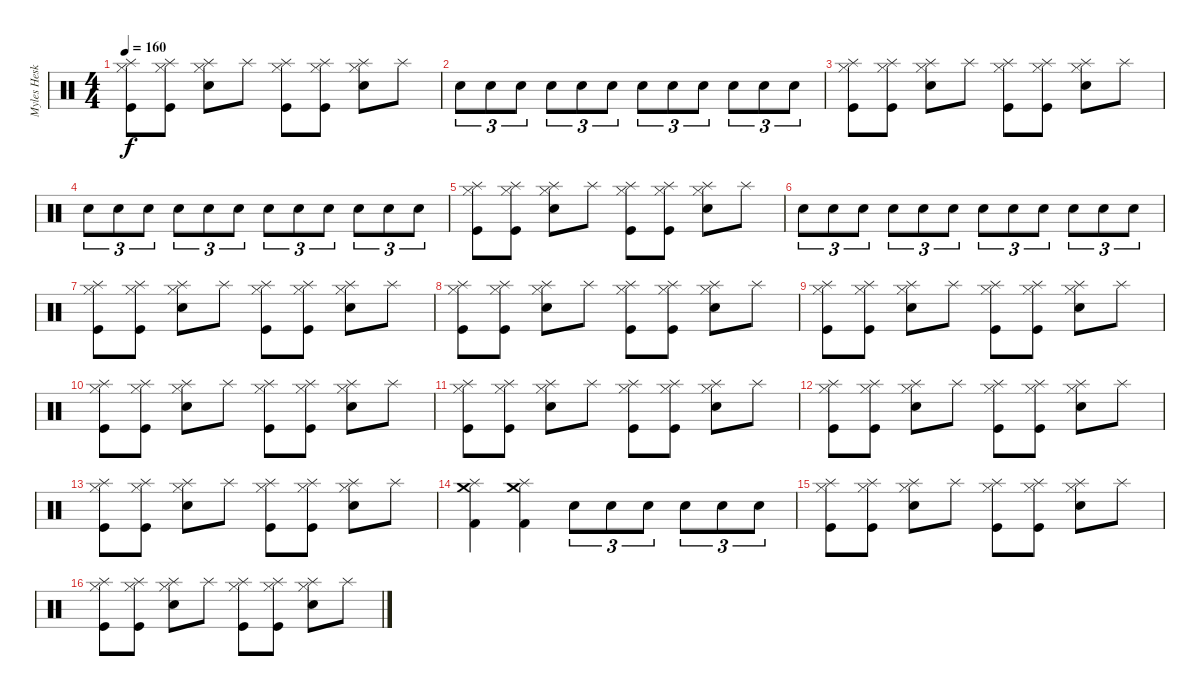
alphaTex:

\track ("Myles Heskett" "Myles Hesk") {instrument percussion}
\staff {score}
\articulation defaults
\ts (4 4)
\tempo 160
\clef neutral
\ks c
("Splash (hit)" "Hi-Hat (closed)" "Kick (hit)").8{dy f} ("Splash (hit)" "Hi-Hat (closed)" "Kick (hit)").8 ("Splash (hit)" "Hi-Hat (closed)" "Electric Snare (hit)").8 "Splash (hit)".8 ("Splash (hit)" "Hi-Hat (closed)" "Kick (hit)").8 ("Splash (hit)" "Hi-Hat (closed)" "Kick (hit)").8 ("Splash (hit)" "Hi-Hat (closed)" "Electric Snare (hit)").8 "Splash (hit)".8 |
"Snare (hit) 2".8{tu (3 2)} "Snare (hit) 2".8{tu (3 2)} "Snare (hit) 2".8{tu (3 2)} "Electric Snare (hit)".8{tu (3 2)} "Electric Snare (hit)".8{tu (3 2)} "Electric Snare (hit)".8{tu (3 2)} "Snare (hit) 2".8{tu (3 2)} "Snare (hit) 2".8{tu (3 2)} "Snare (hit) 2".8{tu (3 2)} "Electric Snare (hit)".8{tu (3 2)} "Electric Snare (hit)".8{tu (3 2)} "Electric Snare (hit)".8{tu (3 2)} |
("Splash (hit)" "Hi-Hat (closed)" "Kick (hit)").8 ("Splash (hit)" "Hi-Hat (closed)" "Kick (hit)").8 ("Splash (hit)" "Hi-Hat (closed)" "Electric Snare (hit)").8 "Splash (hit)".8 ("Splash (hit)" "Hi-Hat (closed)" "Kick (hit)").8 ("Splash (hit)" "Hi-Hat (closed)" "Kick (hit)").8 ("Splash (hit)" "Hi-Hat (closed)" "Electric Snare (hit)").8 "Splash (hit)".8 |
"Snare (hit) 2".8{tu (3 2)} "Snare (hit) 2".8{tu (3 2)} "Snare (hit) 2".8{tu (3 2)} "Electric Snare (hit)".8{tu (3 2)} "Electric Snare (hit)".8{tu (3 2)} "Electric Snare (hit)".8{tu (3 2)} "Snare (hit) 2".8{tu (3 2)} "Snare (hit) 2".8{tu (3 2)} "Snare (hit) 2".8{tu (3 2)} "Electric Snare (hit)".8{tu (3 2)} "Electric Snare (hit)".8{tu (3 2)} "Electric Snare (hit)".8{tu (3 2)} |
("Splash (hit)" "Hi-Hat (closed)" "Kick (hit)").8 ("Splash (hit)" "Hi-Hat (closed)" "Kick (hit)").8 ("Splash (hit)" "Hi-Hat (closed)" "Electric Snare (hit)").8 "Splash (hit)".8 ("Splash (hit)" "Hi-Hat (closed)" "Kick (hit)").8 ("Splash (hit)" "Hi-Hat (closed)" "Kick (hit)").8 ("Splash (hit)" "Hi-Hat (closed)" "Electric Snare (hit)").8 "Splash (hit)".8 |
"Snare (hit) 2".8{tu (3 2)} "Snare (hit) 2".8{tu (3 2)} "Snare (hit) 2".8{tu (3 2)} "Electric Snare (hit)".8{tu (3 2)} "Electric Snare (hit)".8{tu (3 2)} "Electric Snare (hit)".8{tu (3 2)} "Snare (hit) 2".8{tu (3 2)} "Snare (hit) 2".8{tu (3 2)} "Snare (hit) 2".8{tu (3 2)} "Electric Snare (hit)".8{tu (3 2)} "Electric Snare (hit)".8{tu (3 2)} "Electric Snare (hit)".8{tu (3 2)} |
("Splash (hit)" "Hi-Hat (closed)" "Kick (hit)").8 ("Splash (hit)" "Hi-Hat (closed)" "Kick (hit)").8 ("Splash (hit)" "Hi-Hat (closed)" "Electric Snare (hit)").8 "Splash (hit)".8 ("Splash (hit)" "Hi-Hat (closed)" "Kick (hit)").8 ("Splash (hit)" "Hi-Hat (closed)" "Kick (hit)").8 ("Splash (hit)" "Hi-Hat (closed)" "Electric Snare (hit)").8 "Splash (hit)".8 |
("Splash (hit)" "Hi-Hat (closed)" "Kick (hit)").8 ("Splash (hit)" "Hi-Hat (closed)" "Kick (hit)").8 ("Splash (hit)" "Hi-Hat (closed)" "Electric Snare (hit)").8 "Splash (hit)".8 ("Splash (hit)" "Hi-Hat (closed)" "Kick (hit)").8 ("Splash (hit)" "Hi-Hat (closed)" "Kick (hit)").8 ("Splash (hit)" "Hi-Hat (closed)" "Electric Snare (hit)").8 "Splash (hit)".8 |
("Splash (hit)" "Hi-Hat (closed)" "Kick (hit)").8 ("Splash (hit)" "Hi-Hat (closed)" "Kick (hit)").8 ("Splash (hit)" "Hi-Hat (closed)" "Electric Snare (hit)").8 "Splash (hit)".8 ("Splash (hit)" "Hi-Hat (closed)" "Kick (hit)").8 ("Splash (hit)" "Hi-Hat (closed)" "Kick (hit)").8 ("Splash (hit)" "Hi-Hat (closed)" "Electric Snare (hit)").8 "Splash (hit)".8 |
("Splash (hit)" "Hi-Hat (closed)" "Kick (hit)").8 ("Splash (hit)" "Hi-Hat (closed)" "Kick (hit)").8 ("Splash (hit)" "Hi-Hat (closed)" "Electric Snare (hit)").8 "Splash (hit)".8 ("Splash (hit)" "Hi-Hat (closed)" "Kick (hit)").8 ("Splash (hit)" "Hi-Hat (closed)" "Kick (hit)").8 ("Splash (hit)" "Hi-Hat (closed)" "Electric Snare (hit)").8 "Splash (hit)".8 |
("Splash (hit)" "Hi-Hat (closed)" "Kick (hit)").8 ("Splash (hit)" "Hi-Hat (closed)" "Kick (hit)").8 ("Splash (hit)" "Hi-Hat (closed)" "Electric Snare (hit)").8 "Splash (hit)".8 ("Splash (hit)" "Hi-Hat (closed)" "Kick (hit)").8 ("Splash (hit)" "Hi-Hat (closed)" "Kick (hit)").8 ("Splash (hit)" "Hi-Hat (closed)" "Electric Snare (hit)").8 "Splash (hit)".8 |
("Splash (hit)" "Hi-Hat (closed)" "Kick (hit)").8 ("Splash (hit)" "Hi-Hat (closed)" "Kick (hit)").8 ("Splash (hit)" "Hi-Hat (closed)" "Electric Snare (hit)").8 "Splash (hit)".8 ("Splash (hit)" "Hi-Hat (closed)" "Kick (hit)").8 ("Splash (hit)" "Hi-Hat (closed)" "Kick (hit)").8 ("Splash (hit)" "Hi-Hat (closed)" "Electric Snare (hit)").8 "Splash (hit)".8 |
("Splash (hit)" "Hi-Hat (closed)" "Kick (hit)").8 ("Splash (hit)" "Hi-Hat (closed)" "Kick (hit)").8 ("Splash (hit)" "Hi-Hat (closed)" "Electric Snare (hit)").8 "Splash (hit)".8 ("Splash (hit)" "Hi-Hat (closed)" "Kick (hit)").8 ("Splash (hit)" "Hi-Hat (closed)" "Kick (hit)").8 ("Splash (hit)" "Hi-Hat (closed)" "Electric Snare (hit)").8 "Splash (hit)".8 |
("Kick (hit) 2" "Crash medium (hit)" "Splash (hit)").4 ("Kick (hit) 2" "Crash medium (hit)" "Splash (hit)").4 "Snare (hit) 2".8{tu (3 2)} "Snare (hit) 2".8{tu (3 2)} "Snare (hit) 2".8{tu (3 2)} "Electric Snare (hit)".8{tu (3 2)} "Electric Snare (hit)".8{tu (3 2)} "Electric Snare (hit)".8{tu (3 2)} |
("Splash (hit)" "Hi-Hat (closed)" "Kick (hit)").8 ("Splash (hit)" "Hi-Hat (closed)" "Kick (hit)").8 ("Splash (hit)" "Hi-Hat (closed)" "Electric Snare (hit)").8 "Splash (hit)".8 ("Splash (hit)" "Hi-Hat (closed)" "Kick (hit)").8 ("Splash (hit)" "Hi-Hat (closed)" "Kick (hit)").8 ("Splash (hit)" "Hi-Hat (closed)" "Electric Snare (hit)").8 "Splash (hit)".8 |
("Splash (hit)" "Hi-Hat (closed)" "Kick (hit)").8 ("Splash (hit)" "Hi-Hat (closed)" "Kick (hit)").8 ("Splash (hit)" "Hi-Hat (closed)" "Electric Snare (hit)").8 "Splash (hit)".8 ("Splash (hit)" "Hi-Hat (closed)" "Kick (hit)").8 ("Splash (hit)" "Hi-Hat (closed)" "Kick (hit)").8 ("Splash (hit)" "Hi-Hat (closed)" "Electric Snare (hit)").8 "Splash (hit)".8
